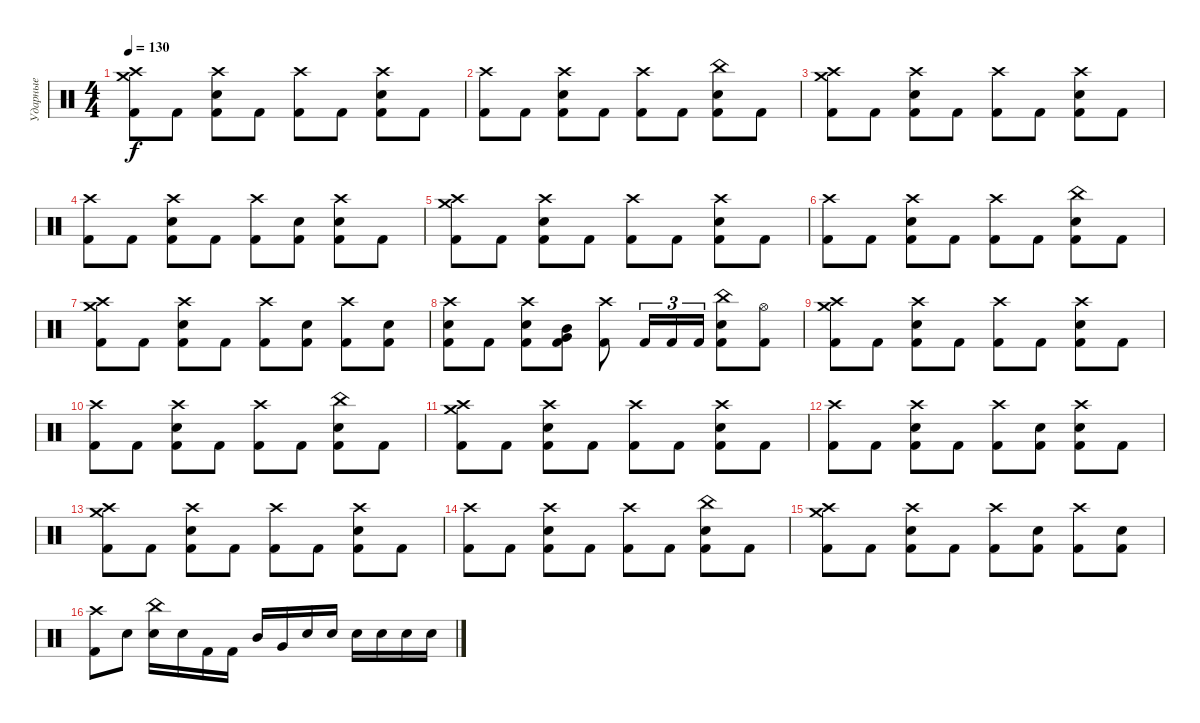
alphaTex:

\track ("Ударные" "Ударные") {instrument percussion}
\staff {score}
\articulation defaults
\ts (4 4)
\tempo 130
\clef neutral
\ks c
("Crash high (hit)" "Crash medium (hit)" "Kick (hit) 2").8{dy f} "Kick (hit) 2".8 ("Crash high (hit)" "Electric Snare (hit)" "Kick (hit) 2").8 "Kick (hit) 2".8 ("Crash high (hit)" "Kick (hit) 2").8 "Kick (hit) 2".8 ("Crash high (hit)" "Electric Snare (hit)" "Kick (hit) 2").8 "Kick (hit) 2".8 |
("Crash high (hit)" "Kick (hit) 2").8 "Kick (hit) 2".8 ("Crash high (hit)" "Electric Snare (hit)" "Kick (hit) 2").8 "Kick (hit) 2".8 ("Crash high (hit)" "Kick (hit) 2").8 "Kick (hit) 2".8 ("China (hit)" "Electric Snare (hit)" "Kick (hit) 2").8 "Kick (hit) 2".8 |
("Crash high (hit)" "Crash medium (hit)" "Kick (hit) 2").8 "Kick (hit) 2".8 ("Crash high (hit)" "Electric Snare (hit)" "Kick (hit) 2").8 "Kick (hit) 2".8 ("Crash high (hit)" "Kick (hit) 2").8 "Kick (hit) 2".8 ("Crash high (hit)" "Electric Snare (hit)" "Kick (hit) 2").8 "Kick (hit) 2".8 |
("Crash high (hit)" "Kick (hit) 2").8 "Kick (hit) 2".8 ("Crash high (hit)" "Electric Snare (hit)" "Kick (hit) 2").8 "Kick (hit) 2".8 ("Crash high (hit)" "Kick (hit) 2").8 ("Electric Snare (hit)" "Kick (hit) 2").8 ("Crash high (hit)" "Electric Snare (hit)" "Kick (hit) 2").8 "Kick (hit) 2".8 |
("Crash high (hit)" "Crash medium (hit)" "Kick (hit) 2").8 "Kick (hit) 2".8 ("Crash high (hit)" "Electric Snare (hit)" "Kick (hit) 2").8 "Kick (hit) 2".8 ("Crash high (hit)" "Kick (hit) 2").8 "Kick (hit) 2".8 ("Crash high (hit)" "Electric Snare (hit)" "Kick (hit) 2").8 "Kick (hit) 2".8 |
("Crash high (hit)" "Kick (hit) 2").8 "Kick (hit) 2".8 ("Crash high (hit)" "Electric Snare (hit)" "Kick (hit) 2").8 "Kick (hit) 2".8 ("Crash high (hit)" "Kick (hit) 2").8 "Kick (hit) 2".8 ("China (hit)" "Electric Snare (hit)" "Kick (hit) 2").8 "Kick (hit) 2".8 |
("Crash high (hit)" "Crash medium (hit)" "Kick (hit) 2").8 "Kick (hit) 2".8 ("Crash high (hit)" "Electric Snare (hit)" "Kick (hit) 2").8 "Kick (hit) 2".8 ("Crash high (hit)" "Kick (hit) 2").8 ("Electric Snare (hit)" "Kick (hit) 2").8 ("Crash high (hit)" "Kick (hit) 2").8 ("Electric Snare (hit)" "Kick (hit) 2").8 |
("Crash high (hit)" "Electric Snare (hit)" "Kick (hit) 2").8 "Kick (hit) 2".8 ("Crash high (hit)" "Electric Snare (hit)" "Kick (hit) 2").8 ("Mid Tom (hit)" "Very Low Tom (hit)" "Kick (hit) 2").8 ("Crash high (hit)" "Kick (hit) 2").8 "Kick (hit) 2".16{tu (3 2)} "Kick (hit) 2".16{tu (3 2)} "Kick (hit) 2".16{tu (3 2)} ("China (hit)" "Electric Snare (hit)" "Kick (hit) 2").8 ("Hi-Hat (open)" "Kick (hit) 2").8 |
("Crash high (hit)" "Crash medium (hit)" "Kick (hit) 2").8 "Kick (hit) 2".8 ("Crash high (hit)" "Electric Snare (hit)" "Kick (hit) 2").8 "Kick (hit) 2".8 ("Crash high (hit)" "Kick (hit) 2").8 "Kick (hit) 2".8 ("Crash high (hit)" "Electric Snare (hit)" "Kick (hit) 2").8 "Kick (hit) 2".8 |
("Crash high (hit)" "Kick (hit) 2").8 "Kick (hit) 2".8 ("Crash high (hit)" "Electric Snare (hit)" "Kick (hit) 2").8 "Kick (hit) 2".8 ("Crash high (hit)" "Kick (hit) 2").8 "Kick (hit) 2".8 ("China (hit)" "Electric Snare (hit)" "Kick (hit) 2").8 "Kick (hit) 2".8 |
("Crash high (hit)" "Crash medium (hit)" "Kick (hit) 2").8 "Kick (hit) 2".8 ("Crash high (hit)" "Electric Snare (hit)" "Kick (hit) 2").8 "Kick (hit) 2".8 ("Crash high (hit)" "Kick (hit) 2").8 "Kick (hit) 2".8 ("Crash high (hit)" "Electric Snare (hit)" "Kick (hit) 2").8 "Kick (hit) 2".8 |
("Crash high (hit)" "Kick (hit) 2").8 "Kick (hit) 2".8 ("Crash high (hit)" "Electric Snare (hit)" "Kick (hit) 2").8 "Kick (hit) 2".8 ("Crash high (hit)" "Kick (hit) 2").8 ("Electric Snare (hit)" "Kick (hit) 2").8 ("Crash high (hit)" "Electric Snare (hit)" "Kick (hit) 2").8 "Kick (hit) 2".8 |
("Crash high (hit)" "Crash medium (hit)" "Kick (hit) 2").8 "Kick (hit) 2".8 ("Crash high (hit)" "Electric Snare (hit)" "Kick (hit) 2").8 "Kick (hit) 2".8 ("Crash high (hit)" "Kick (hit) 2").8 "Kick (hit) 2".8 ("Crash high (hit)" "Electric Snare (hit)" "Kick (hit) 2").8 "Kick (hit) 2".8 |
("Crash high (hit)" "Kick (hit) 2").8 "Kick (hit) 2".8 ("Crash high (hit)" "Electric Snare (hit)" "Kick (hit) 2").8 "Kick (hit) 2".8 ("Crash high (hit)" "Kick (hit) 2").8 "Kick (hit) 2".8 ("China (hit)" "Electric Snare (hit)" "Kick (hit) 2").8 "Kick (hit) 2".8 |
("Crash high (hit)" "Crash medium (hit)" "Kick (hit) 2").8 "Kick (hit) 2".8 ("Crash high (hit)" "Electric Snare (hit)" "Kick (hit) 2").8 "Kick (hit) 2".8 ("Crash high (hit)" "Kick (hit) 2").8 ("Electric Snare (hit)" "Kick (hit) 2").8 ("Crash high (hit)" "Kick (hit) 2").8 ("Electric Snare (hit)" "Kick (hit) 2").8 |
("Crash high (hit)" "Kick (hit) 2").8 "Electric Snare (hit)".8 ("China (hit)" "Electric Snare (hit)").16 "Electric Snare (hit)".16 "Kick (hit) 2".16 "Kick (hit) 2".16 "Mid Tom (hit)".16 "Very Low Tom (hit)".16 "Electric Snare (hit)".16 "Electric Snare (hit)".16 "Electric Snare (hit)".16 "Electric Snare (hit)".16 "Electric Snare (hit)".16 "Electric Snare (hit)".16
